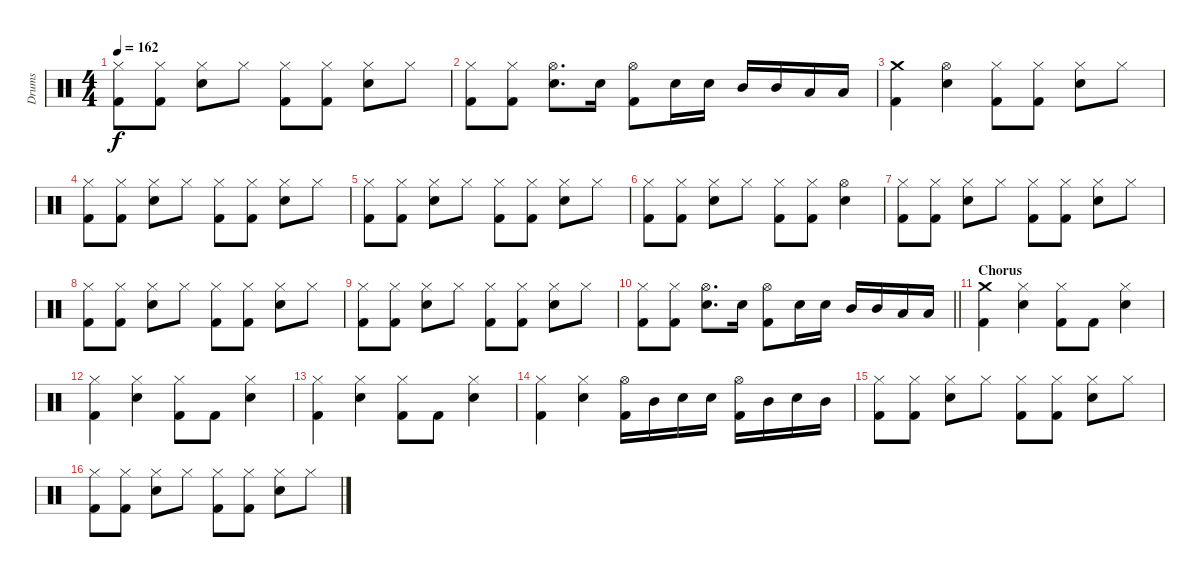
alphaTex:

\track ("Drums" "Drums") {instrument percussion}
\staff {score}
\articulation defaults
\ts (4 4)
\tempo 162
\clef neutral
\ks c
("Hi-Hat (closed)" "Kick (hit) 2").8{dy f} ("Hi-Hat (closed)" "Kick (hit) 2").8 ("Hi-Hat (closed)" "Electric Snare (hit)").8 "Hi-Hat (closed)".8 ("Hi-Hat (closed)" "Kick (hit) 2").8 ("Hi-Hat (closed)" "Kick (hit) 2").8 ("Hi-Hat (closed)" "Electric Snare (hit)").8 "Hi-Hat (closed)".8 |
("Hi-Hat (closed)" "Kick (hit) 2").8 ("Hi-Hat (closed)" "Kick (hit) 2").8 ("Hi-Hat (open)" "Electric Snare (hit)").8{d} "Electric Snare (hit)".16 ("Hi-Hat (open)" "Kick (hit) 2").8 "Electric Snare (hit)".16 "Electric Snare (hit)".16 "Mid Tom (hit)".16 "Mid Tom (hit)".16 "Low Tom (hit)".16 "Low Tom (hit)".16 |
("Crash medium (hit)" "Kick (hit) 2").4 ("Hi-Hat (open)" "Electric Snare (hit)").4 ("Hi-Hat (closed)" "Kick (hit) 2").8 ("Hi-Hat (closed)" "Kick (hit) 2").8 ("Hi-Hat (closed)" "Electric Snare (hit)").8 "Hi-Hat (closed)".8 |
("Hi-Hat (closed)" "Kick (hit) 2").8 ("Hi-Hat (closed)" "Kick (hit) 2").8 ("Hi-Hat (closed)" "Electric Snare (hit)").8 "Hi-Hat (closed)".8 ("Hi-Hat (closed)" "Kick (hit) 2").8 ("Hi-Hat (closed)" "Kick (hit) 2").8 ("Hi-Hat (closed)" "Electric Snare (hit)").8 "Hi-Hat (closed)".8 |
("Hi-Hat (closed)" "Kick (hit) 2").8 ("Hi-Hat (closed)" "Kick (hit) 2").8 ("Hi-Hat (closed)" "Electric Snare (hit)").8 "Hi-Hat (closed)".8 ("Hi-Hat (closed)" "Kick (hit) 2").8 ("Hi-Hat (closed)" "Kick (hit) 2").8 ("Hi-Hat (closed)" "Electric Snare (hit)").8 "Hi-Hat (closed)".8 |
("Hi-Hat (closed)" "Kick (hit) 2").8 ("Hi-Hat (closed)" "Kick (hit) 2").8 ("Hi-Hat (closed)" "Electric Snare (hit)").8 "Hi-Hat (closed)".8 ("Hi-Hat (closed)" "Kick (hit) 2").8 ("Hi-Hat (closed)" "Kick (hit) 2").8 ("Hi-Hat (open)" "Electric Snare (hit)").4 |
("Hi-Hat (closed)" "Kick (hit) 2").8 ("Hi-Hat (closed)" "Kick (hit) 2").8 ("Hi-Hat (closed)" "Electric Snare (hit)").8 "Hi-Hat (closed)".8 ("Hi-Hat (closed)" "Kick (hit) 2").8 ("Hi-Hat (closed)" "Kick (hit) 2").8 ("Hi-Hat (closed)" "Electric Snare (hit)").8 "Hi-Hat (closed)".8 |
("Hi-Hat (closed)" "Kick (hit) 2").8 ("Hi-Hat (closed)" "Kick (hit) 2").8 ("Hi-Hat (closed)" "Electric Snare (hit)").8 "Hi-Hat (closed)".8 ("Hi-Hat (closed)" "Kick (hit) 2").8 ("Hi-Hat (closed)" "Kick (hit) 2").8 ("Hi-Hat (closed)" "Electric Snare (hit)").8 "Hi-Hat (closed)".8 |
("Hi-Hat (closed)" "Kick (hit) 2").8 ("Hi-Hat (closed)" "Kick (hit) 2").8 ("Hi-Hat (closed)" "Electric Snare (hit)").8 "Hi-Hat (closed)".8 ("Hi-Hat (closed)" "Kick (hit) 2").8 ("Hi-Hat (closed)" "Kick (hit) 2").8 ("Hi-Hat (closed)" "Electric Snare (hit)").8 "Hi-Hat (closed)".8 |
\barLineRight lightlight
("Hi-Hat (closed)" "Kick (hit) 2").8 ("Hi-Hat (closed)" "Kick (hit) 2").8 ("Hi-Hat (open)" "Electric Snare (hit)").8{d} "Electric Snare (hit)".16 ("Hi-Hat (open)" "Kick (hit) 2").8 "Electric Snare (hit)".16 "Electric Snare (hit)".16 "Mid Tom (hit)".16 "Mid Tom (hit)".16 "Low Tom (hit)".16 "Low Tom (hit)".16 |
\section ("" "Chorus")
("Crash medium (hit)" "Kick (hit) 2").4 ("Hi-Hat (closed)" "Electric Snare (hit)").4 ("Hi-Hat (closed)" "Kick (hit) 2").8 "Kick (hit) 2".8 ("Hi-Hat (closed)" "Electric Snare (hit)").4 |
("Hi-Hat (closed)" "Kick (hit) 2").4 ("Hi-Hat (closed)" "Electric Snare (hit)").4 ("Hi-Hat (closed)" "Kick (hit) 2").8 "Kick (hit) 2".8 ("Hi-Hat (closed)" "Electric Snare (hit)").4 |
("Hi-Hat (closed)" "Kick (hit) 2").4 ("Hi-Hat (closed)" "Electric Snare (hit)").4 ("Hi-Hat (closed)" "Kick (hit) 2").8 "Kick (hit) 2".8 ("Hi-Hat (closed)" "Electric Snare (hit)").4 |
("Hi-Hat (closed)" "Kick (hit) 2").4 ("Hi-Hat (closed)" "Electric Snare (hit)").4 ("Hi-Hat (open)" "Kick (hit) 2").16 "Mid Tom (hit)".16 "Electric Snare (hit)".16 "Electric Snare (hit)".16 ("Hi-Hat (open)" "Kick (hit) 2").16 "Mid Tom (hit)".16 "Electric Snare (hit)".16 "Mid Tom (hit)".16 |
("Hi-Hat (closed)" "Kick (hit) 2").8 ("Hi-Hat (closed)" "Kick (hit) 2").8 ("Hi-Hat (closed)" "Electric Snare (hit)").8 "Hi-Hat (closed)".8 ("Hi-Hat (closed)" "Kick (hit) 2").8 ("Hi-Hat (closed)" "Kick (hit) 2").8 ("Hi-Hat (closed)" "Electric Snare (hit)").8 "Hi-Hat (closed)".8 |
("Hi-Hat (closed)" "Kick (hit) 2").8 ("Hi-Hat (closed)" "Kick (hit) 2").8 ("Hi-Hat (closed)" "Electric Snare (hit)").8 "Hi-Hat (closed)".8 ("Hi-Hat (closed)" "Kick (hit) 2").8 ("Hi-Hat (closed)" "Kick (hit) 2").8 ("Hi-Hat (closed)" "Electric Snare (hit)").8 "Hi-Hat (closed)".8
